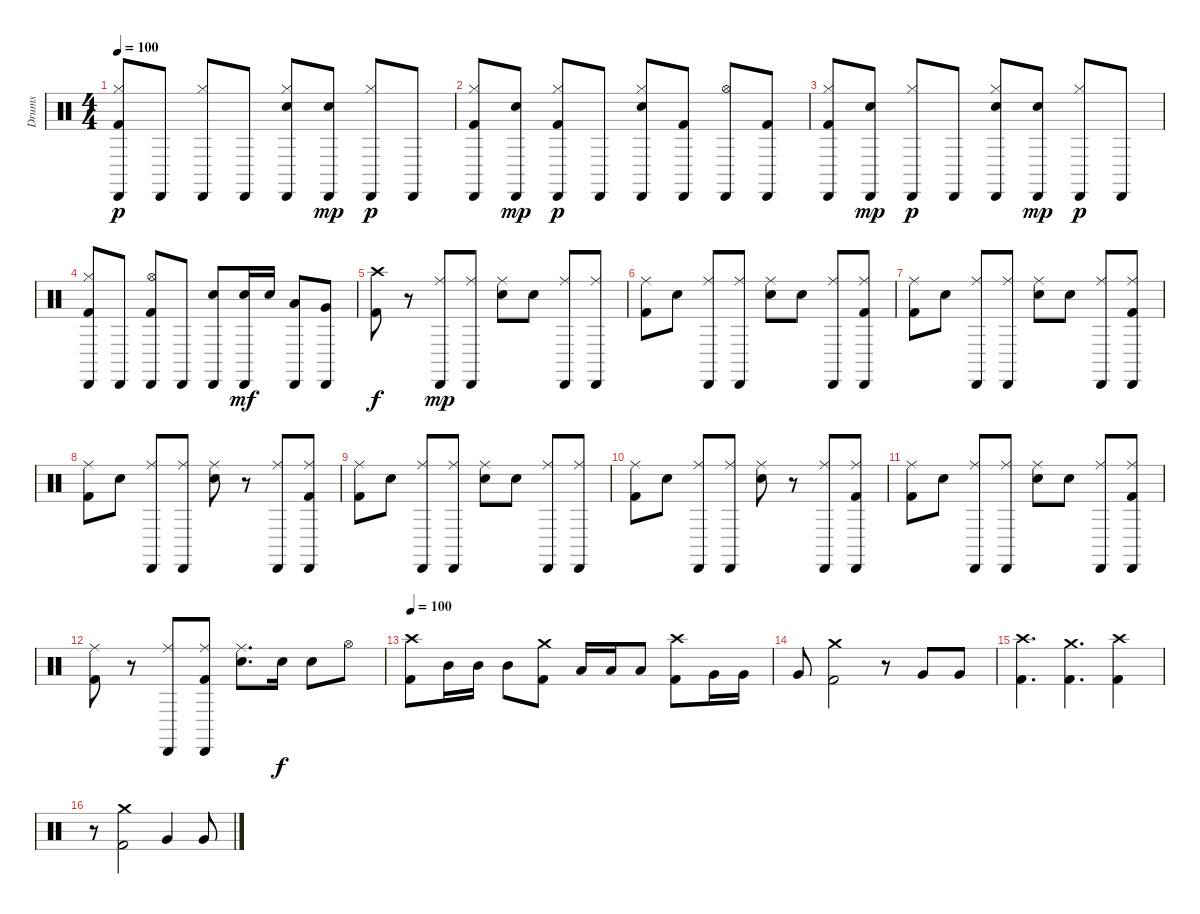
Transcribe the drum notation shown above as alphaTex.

\track ("Drums" "Drums") {instrument percussion}
\staff {score}
\articulation defaults
\ts (4 4)
\tempo 100
\clef neutral
\ks c
("Hi-Hat (closed)" "Cabasa (hit)" "Kick (hit) 2").8{dy p} "Cabasa (hit)".8 ("Hi-Hat (closed)" "Cabasa (hit)").8 "Cabasa (hit)".8 ("Hi-Hat (closed)" "Cabasa (hit)" "Snare (hit) 2").8 ("Cabasa (hit)" "Snare (hit) 2").8{dy mp} ("Hi-Hat (closed)" "Cabasa (hit)").8{dy p} "Cabasa (hit)".8 |
("Hi-Hat (closed)" "Cabasa (hit)" "Kick (hit) 2").8 ("Cabasa (hit)" "Snare (hit) 2").8{dy mp} ("Hi-Hat (closed)" "Cabasa (hit)" "Kick (hit) 2").8{dy p} "Cabasa (hit)".8 ("Hi-Hat (closed)" "Cabasa (hit)" "Snare (hit) 2").8 ("Cabasa (hit)" "Kick (hit) 2").8 ("Hi-Hat (open)" "Cabasa (hit)").8 ("Cabasa (hit)" "Kick (hit) 2").8 |
("Hi-Hat (closed)" "Cabasa (hit)" "Kick (hit) 2").8 ("Cabasa (hit)" "Snare (hit) 2").8{dy mp} ("Hi-Hat (closed)" "Cabasa (hit)").8{dy p} "Cabasa (hit)".8 ("Hi-Hat (closed)" "Cabasa (hit)" "Snare (hit) 2").8 ("Cabasa (hit)" "Snare (hit) 2").8{dy mp} ("Hi-Hat (closed)" "Cabasa (hit)").8{dy p} "Cabasa (hit)".8 |
("Hi-Hat (closed)" "Cabasa (hit)" "Kick (hit) 2").8 "Cabasa (hit)".8 ("Hi-Hat (open)" "Cabasa (hit)" "Kick (hit) 2").8 "Cabasa (hit)".8 ("Cabasa (hit)" "Snare (hit) 2").8 ("Cabasa (hit)" "Snare (hit) 2").16{dy mf} "Snare (hit) 2".16 ("Cabasa (hit)" "Low Tom (hit)").8 ("Cabasa (hit)" "Very Low Tom (hit)").8 |
("Crash high (hit)" "Kick (hit) 2").8{dy f} r.8 ("Ride (middle)" "Cabasa (hit)").8{dy mp} ("Ride (middle)" "Cabasa (hit)").8 ("Ride (middle)" "Snare (hit) 2").8 "Snare (hit) 2".8 ("Ride (middle)" "Cabasa (hit)").8 ("Ride (middle)" "Cabasa (hit)").8 |
("Ride (middle)" "Kick (hit) 2").8 "Snare (hit) 2".8 ("Ride (middle)" "Cabasa (hit)").8 ("Ride (middle)" "Cabasa (hit)").8 ("Ride (middle)" "Snare (hit) 2").8 "Snare (hit) 2".8 ("Ride (middle)" "Cabasa (hit)").8 ("Ride (middle)" "Cabasa (hit)" "Kick (hit) 2").8 |
("Ride (middle)" "Kick (hit) 2").8 "Snare (hit) 2".8 ("Ride (middle)" "Cabasa (hit)").8 ("Ride (middle)" "Cabasa (hit)").8 ("Ride (middle)" "Snare (hit) 2").8 "Snare (hit) 2".8 ("Ride (middle)" "Cabasa (hit)").8 ("Ride (middle)" "Cabasa (hit)" "Kick (hit) 2").8 |
("Ride (middle)" "Kick (hit) 2").8 "Snare (hit) 2".8 ("Ride (middle)" "Cabasa (hit)").8 ("Ride (middle)" "Cabasa (hit)").8 ("Ride (middle)" "Snare (hit) 2").8 r.8 ("Ride (middle)" "Cabasa (hit)").8 ("Ride (middle)" "Cabasa (hit)" "Kick (hit) 2").8 |
("Ride (middle)" "Kick (hit) 2").8 "Snare (hit) 2".8 ("Ride (middle)" "Cabasa (hit)").8 ("Ride (middle)" "Cabasa (hit)").8 ("Ride (middle)" "Snare (hit) 2").8 "Snare (hit) 2".8 ("Ride (middle)" "Cabasa (hit)").8 ("Ride (middle)" "Cabasa (hit)").8 |
("Ride (middle)" "Kick (hit) 2").8 "Snare (hit) 2".8 ("Ride (middle)" "Cabasa (hit)").8 ("Ride (middle)" "Cabasa (hit)").8 ("Ride (middle)" "Snare (hit) 2").8 r.8 ("Ride (middle)" "Cabasa (hit)").8 ("Ride (middle)" "Cabasa (hit)" "Kick (hit) 2").8 |
("Ride (middle)" "Kick (hit) 2").8 "Snare (hit) 2".8 ("Ride (middle)" "Cabasa (hit)").8 ("Ride (middle)" "Cabasa (hit)").8 ("Ride (middle)" "Snare (hit) 2").8 "Snare (hit) 2".8 ("Ride (middle)" "Cabasa (hit)").8 ("Ride (middle)" "Cabasa (hit)" "Kick (hit) 2").8 |
("Ride (middle)" "Kick (hit) 2").8 r.8 ("Ride (middle)" "Cabasa (hit)").8 ("Ride (middle)" "Cabasa (hit)" "Kick (hit) 2").8 ("Ride (middle)" "Snare (hit) 2").8{d} "Snare (hit) 2".16{dy f} "Snare (hit) 2".8 "Hi-Hat (open)".8 |
\tempo 100
("Crash high (hit)" "Kick (hit) 2").8 "Mid Tom (hit)".16 "Mid Tom (hit)".16 "Mid Tom (hit)".8 ("Crash medium (hit)" "Kick (hit) 2").8 "Low Tom (hit)".16 "Low Tom (hit)".16 "Low Tom (hit)".8 ("Crash high (hit)" "Kick (hit) 2").8 "Very Low Tom (hit)".16 "Very Low Tom (hit)".16 |
"Very Low Tom (hit)".8 ("Crash medium (hit)" "Kick (hit) 2").2 r.8 "Very Low Tom (hit)".8 "Very Low Tom (hit)".8 |
("Crash high (hit)" "Kick (hit) 2").4{d} ("Crash medium (hit)" "Kick (hit) 2").4{d} ("Crash high (hit)" "Kick (hit) 2").4 |
r.8 ("Crash medium (hit)" "Kick (hit) 2").2 "Very Low Tom (hit)".4 "Very Low Tom (hit)".8
